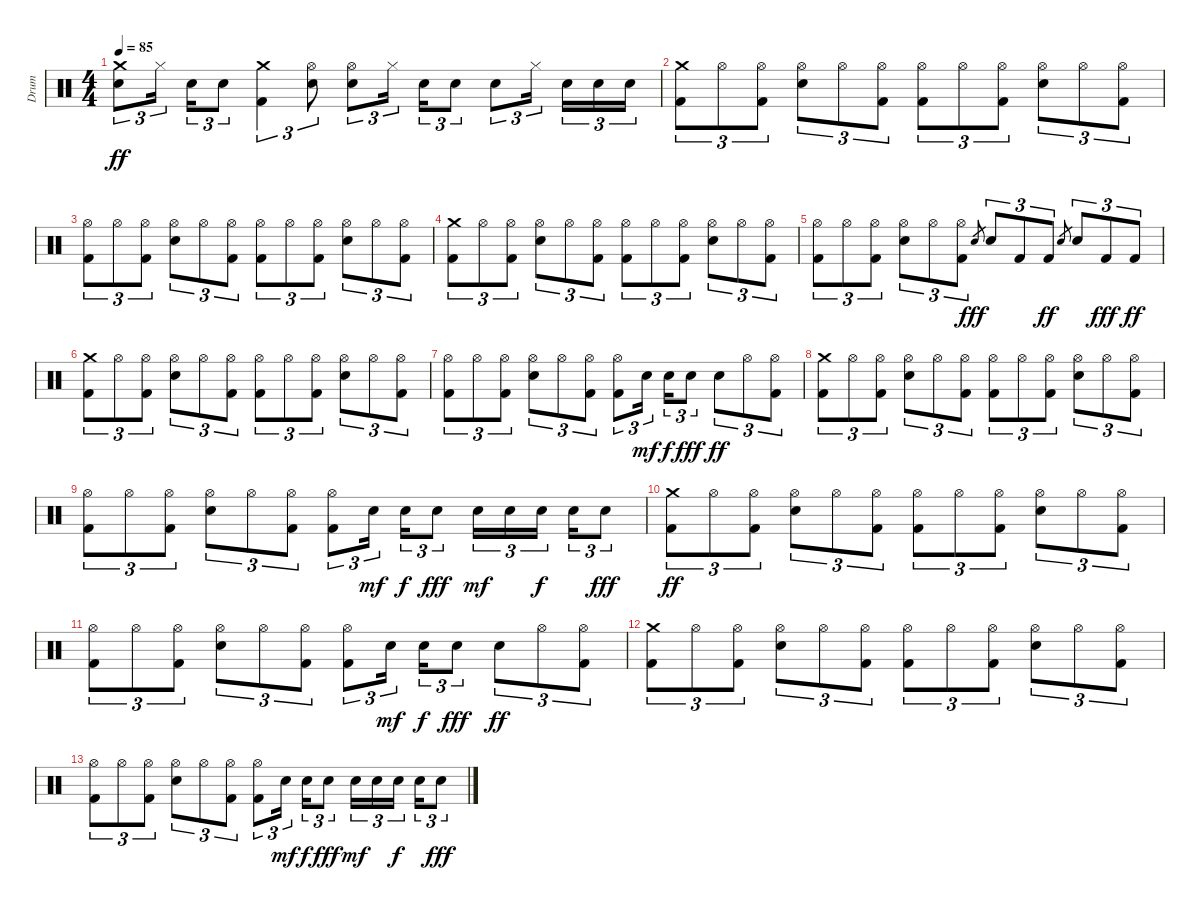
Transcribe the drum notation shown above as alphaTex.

\track ("Drum" "Drum") {instrument percussion}
\staff {score}
\articulation defaults
\ts (4 4)
\tempo 85
\clef neutral
\ks c
("Crash medium (hit)" "Snare (hit) 2").8{tu (3 2) dy ff} "Hi-Hat (closed)".16{tu (3 2)} "Snare (hit) 2".16{tu (3 2)} "Snare (hit) 2".8{tu (3 2)} ("Crash medium (hit)" "Kick (hit) 2").4{tu (3 2)} ("Hi-Hat (open)" "Snare (hit) 2").8{tu (3 2)} ("Hi-Hat (open)" "Snare (hit) 2").8{tu (3 2)} "Hi-Hat (closed)".16{tu (3 2)} "Snare (hit) 2".16{tu (3 2)} "Snare (hit) 2".8{tu (3 2)} "Snare (hit) 2".8{tu (3 2)} "Hi-Hat (closed)".16{tu (3 2)} "Snare (hit) 2".16{tu (3 2)} "Snare (hit) 2".16{tu (3 2)} "Snare (hit) 2".16{tu (3 2)} |
("Crash medium (hit)" "Kick (hit) 2").8{tu (3 2)} "Hi-Hat (open)".8{tu (3 2)} ("Hi-Hat (open)" "Kick (hit) 2").8{tu (3 2)} ("Hi-Hat (open)" "Snare (hit) 2").8{tu (3 2)} "Hi-Hat (open)".8{tu (3 2)} ("Hi-Hat (open)" "Kick (hit) 2").8{tu (3 2)} ("Hi-Hat (open)" "Kick (hit) 2").8{tu (3 2)} "Hi-Hat (open)".8{tu (3 2)} ("Hi-Hat (open)" "Kick (hit) 2").8{tu (3 2)} ("Hi-Hat (open)" "Snare (hit) 2").8{tu (3 2)} "Hi-Hat (open)".8{tu (3 2)} ("Hi-Hat (open)" "Kick (hit) 2").8{tu (3 2)} |
("Hi-Hat (open)" "Kick (hit) 2").8{tu (3 2)} "Hi-Hat (open)".8{tu (3 2)} ("Hi-Hat (open)" "Kick (hit) 2").8{tu (3 2)} ("Hi-Hat (open)" "Snare (hit) 2").8{tu (3 2)} "Hi-Hat (open)".8{tu (3 2)} ("Hi-Hat (open)" "Kick (hit) 2").8{tu (3 2)} ("Hi-Hat (open)" "Kick (hit) 2").8{tu (3 2)} "Hi-Hat (open)".8{tu (3 2)} ("Hi-Hat (open)" "Kick (hit) 2").8{tu (3 2)} ("Hi-Hat (open)" "Snare (hit) 2").8{tu (3 2)} "Hi-Hat (open)".8{tu (3 2)} ("Hi-Hat (open)" "Kick (hit) 2").8{tu (3 2)} |
("Crash medium (hit)" "Kick (hit) 2").8{tu (3 2)} "Hi-Hat (open)".8{tu (3 2)} ("Hi-Hat (open)" "Kick (hit) 2").8{tu (3 2)} ("Hi-Hat (open)" "Snare (hit) 2").8{tu (3 2)} "Hi-Hat (open)".8{tu (3 2)} ("Hi-Hat (open)" "Kick (hit) 2").8{tu (3 2)} ("Hi-Hat (open)" "Kick (hit) 2").8{tu (3 2)} "Hi-Hat (open)".8{tu (3 2)} ("Hi-Hat (open)" "Kick (hit) 2").8{tu (3 2)} ("Hi-Hat (open)" "Snare (hit) 2").8{tu (3 2)} "Hi-Hat (open)".8{tu (3 2)} ("Hi-Hat (open)" "Kick (hit) 2").8{tu (3 2)} |
("Hi-Hat (open)" "Kick (hit) 2").8{tu (3 2)} "Hi-Hat (open)".8{tu (3 2)} ("Hi-Hat (open)" "Kick (hit) 2").8{tu (3 2)} ("Hi-Hat (open)" "Snare (hit) 2").8{tu (3 2)} "Hi-Hat (open)".8{tu (3 2)} ("Hi-Hat (open)" "Kick (hit) 2").8{tu (3 2)} "Snare (hit) 2".8{gr dy fff} "Snare (hit) 2".8{tu (3 2)} "Kick (hit) 2".8{tu (3 2)} "Kick (hit) 2".8{tu (3 2) dy ff} "Snare (hit) 2".8{gr} "Snare (hit) 2".8{tu (3 2)} "Kick (hit) 2".8{tu (3 2) dy fff} "Kick (hit) 2".8{tu (3 2) dy ff} |
("Crash medium (hit)" "Kick (hit) 2").8{tu (3 2)} "Hi-Hat (open)".8{tu (3 2)} ("Hi-Hat (open)" "Kick (hit) 2").8{tu (3 2)} ("Hi-Hat (open)" "Snare (hit) 2").8{tu (3 2)} "Hi-Hat (open)".8{tu (3 2)} ("Hi-Hat (open)" "Kick (hit) 2").8{tu (3 2)} ("Hi-Hat (open)" "Kick (hit) 2").8{tu (3 2)} "Hi-Hat (open)".8{tu (3 2)} ("Hi-Hat (open)" "Kick (hit) 2").8{tu (3 2)} ("Hi-Hat (open)" "Snare (hit) 2").8{tu (3 2)} "Hi-Hat (open)".8{tu (3 2)} ("Hi-Hat (open)" "Kick (hit) 2").8{tu (3 2)} |
("Hi-Hat (open)" "Kick (hit) 2").8{tu (3 2)} "Hi-Hat (open)".8{tu (3 2)} ("Hi-Hat (open)" "Kick (hit) 2").8{tu (3 2)} ("Hi-Hat (open)" "Snare (hit) 2").8{tu (3 2)} "Hi-Hat (open)".8{tu (3 2)} ("Hi-Hat (open)" "Kick (hit) 2").8{tu (3 2)} ("Hi-Hat (open)" "Kick (hit) 2").8{tu (3 2)} "Snare (hit) 2".16{tu (3 2) dy mf} "Snare (hit) 2".16{tu (3 2) dy f} "Snare (hit) 2".8{tu (3 2) dy fff} "Snare (hit) 2".8{tu (3 2) dy ff} "Hi-Hat (open)".8{tu (3 2)} ("Hi-Hat (open)" "Kick (hit) 2").8{tu (3 2)} |
("Crash medium (hit)" "Kick (hit) 2").8{tu (3 2)} "Hi-Hat (open)".8{tu (3 2)} ("Hi-Hat (open)" "Kick (hit) 2").8{tu (3 2)} ("Hi-Hat (open)" "Snare (hit) 2").8{tu (3 2)} "Hi-Hat (open)".8{tu (3 2)} ("Hi-Hat (open)" "Kick (hit) 2").8{tu (3 2)} ("Hi-Hat (open)" "Kick (hit) 2").8{tu (3 2)} "Hi-Hat (open)".8{tu (3 2)} ("Hi-Hat (open)" "Kick (hit) 2").8{tu (3 2)} ("Hi-Hat (open)" "Snare (hit) 2").8{tu (3 2)} "Hi-Hat (open)".8{tu (3 2)} ("Hi-Hat (open)" "Kick (hit) 2").8{tu (3 2)} |
("Hi-Hat (open)" "Kick (hit) 2").8{tu (3 2)} "Hi-Hat (open)".8{tu (3 2)} ("Hi-Hat (open)" "Kick (hit) 2").8{tu (3 2)} ("Hi-Hat (open)" "Snare (hit) 2").8{tu (3 2)} "Hi-Hat (open)".8{tu (3 2)} ("Hi-Hat (open)" "Kick (hit) 2").8{tu (3 2)} ("Hi-Hat (open)" "Kick (hit) 2").8{tu (3 2)} "Snare (hit) 2".16{tu (3 2) dy mf} "Snare (hit) 2".16{tu (3 2) dy f} "Snare (hit) 2".8{tu (3 2) dy fff} "Snare (hit) 2".16{tu (3 2) dy mf} "Snare (hit) 2".16{tu (3 2)} "Snare (hit) 2".16{tu (3 2) dy f} "Snare (hit) 2".16{tu (3 2)} "Snare (hit) 2".8{tu (3 2) dy fff} |
("Crash medium (hit)" "Kick (hit) 2").8{tu (3 2) dy ff} "Hi-Hat (open)".8{tu (3 2)} ("Hi-Hat (open)" "Kick (hit) 2").8{tu (3 2) volume 12} ("Hi-Hat (open)" "Snare (hit) 2").8{tu (3 2)} "Hi-Hat (open)".8{tu (3 2)} ("Hi-Hat (open)" "Kick (hit) 2").8{tu (3 2)} ("Hi-Hat (open)" "Kick (hit) 2").8{tu (3 2) volume 11} "Hi-Hat (open)".8{tu (3 2)} ("Hi-Hat (open)" "Kick (hit) 2").8{tu (3 2)} ("Hi-Hat (open)" "Snare (hit) 2").8{tu (3 2) volume 10} "Hi-Hat (open)".8{tu (3 2)} ("Hi-Hat (open)" "Kick (hit) 2").8{tu (3 2)} |
("Hi-Hat (open)" "Kick (hit) 2").8{tu (3 2) volume 9} "Hi-Hat (open)".8{tu (3 2)} ("Hi-Hat (open)" "Kick (hit) 2").8{tu (3 2)} ("Hi-Hat (open)" "Snare (hit) 2").8{tu (3 2) volume 8} "Hi-Hat (open)".8{tu (3 2)} ("Hi-Hat (open)" "Kick (hit) 2").8{tu (3 2)} ("Hi-Hat (open)" "Kick (hit) 2").8{tu (3 2) volume 7} "Snare (hit) 2".16{tu (3 2) dy mf} "Snare (hit) 2".16{tu (3 2) dy f} "Snare (hit) 2".8{tu (3 2) dy fff} "Snare (hit) 2".8{tu (3 2) dy ff volume 6} "Hi-Hat (open)".8{tu (3 2)} ("Hi-Hat (open)" "Kick (hit) 2").8{tu (3 2)} |
("Crash medium (hit)" "Kick (hit) 2").8{tu (3 2) volume 5} "Hi-Hat (open)".8{tu (3 2)} ("Hi-Hat (open)" "Kick (hit) 2").8{tu (3 2)} ("Hi-Hat (open)" "Snare (hit) 2").8{tu (3 2) volume 4} "Hi-Hat (open)".8{tu (3 2)} ("Hi-Hat (open)" "Kick (hit) 2").8{tu (3 2)} ("Hi-Hat (open)" "Kick (hit) 2").8{tu (3 2) volume 3} "Hi-Hat (open)".8{tu (3 2)} ("Hi-Hat (open)" "Kick (hit) 2").8{tu (3 2)} ("Hi-Hat (open)" "Snare (hit) 2").8{tu (3 2) volume 2} "Hi-Hat (open)".8{tu (3 2)} ("Hi-Hat (open)" "Kick (hit) 2").8{tu (3 2)} |
("Hi-Hat (open)" "Kick (hit) 2").8{tu (3 2) volume 1} "Hi-Hat (open)".8{tu (3 2)} ("Hi-Hat (open)" "Kick (hit) 2").8{tu (3 2)} ("Hi-Hat (open)" "Snare (hit) 2").8{tu (3 2) volume 1} "Hi-Hat (open)".8{tu (3 2)} ("Hi-Hat (open)" "Kick (hit) 2").8{tu (3 2)} ("Hi-Hat (open)" "Kick (hit) 2").8{tu (3 2) volume 0} "Snare (hit) 2".16{tu (3 2) dy mf} "Snare (hit) 2".16{tu (3 2) dy f} "Snare (hit) 2".8{tu (3 2) dy fff} "Snare (hit) 2".16{tu (3 2) dy mf volume 0} "Snare (hit) 2".16{tu (3 2)} "Snare (hit) 2".16{tu (3 2) dy f} "Snare (hit) 2".16{tu (3 2)} "Snare (hit) 2".8{tu (3 2) dy fff}
